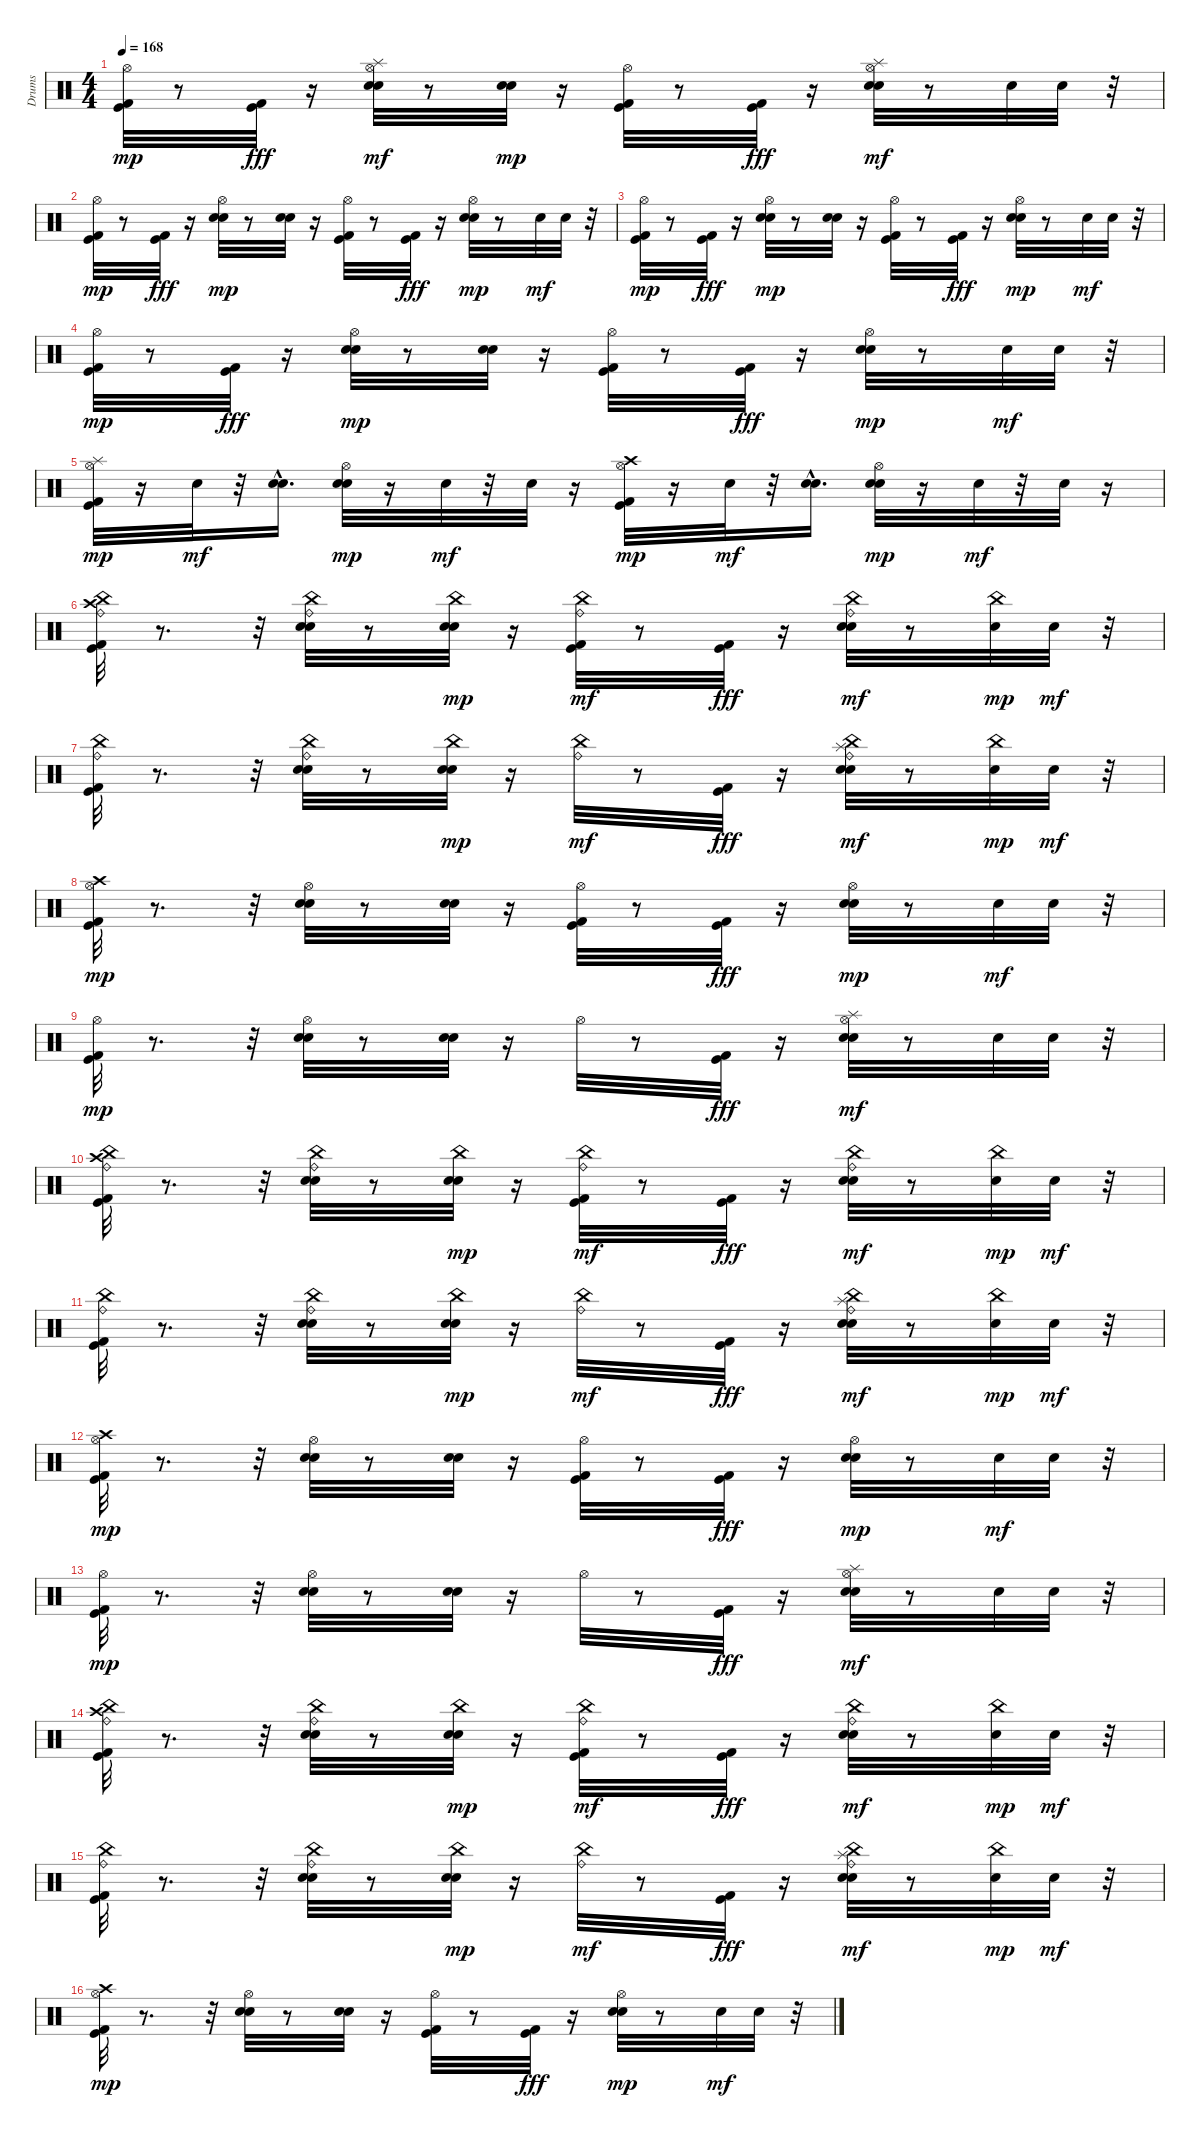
\track ("Drums" "Drums") {instrument percussion}
\staff {score}
\articulation defaults
\ts (4 4)
\tempo 168
\clef neutral
\ks c
("Kick (hit) 2" "Kick (hit)" "Hi-Hat (open)").32{dy mp} r.8 ("Kick (hit) 2" "Kick (hit)").32{dy fff} r.16 ("Snare (hit) 2" "Hand Clap (hit)" "Hi-Hat (open)" "Splash (hit)").32{dy mf} r.8 ("Snare (hit) 2" "Hand Clap (hit)").32{dy mp} r.16 ("Kick (hit) 2" "Kick (hit)" "Hi-Hat (open)").32 r.8 ("Kick (hit) 2" "Kick (hit)").32{dy fff} r.16 ("Snare (hit) 2" "Hand Clap (hit)" "Hi-Hat (open)" "Splash (hit)").32{dy mf} r.8 "Snare (hit) 2".32 "Hand Clap (hit)".32 r.32 |
("Kick (hit) 2" "Kick (hit)" "Hi-Hat (open)").32{dy mp} r.8 ("Kick (hit) 2" "Kick (hit)").32{dy fff} r.16 ("Snare (hit) 2" "Hand Clap (hit)" "Hi-Hat (open)").32{dy mp} r.8 ("Snare (hit) 2" "Hand Clap (hit)").32 r.16 ("Kick (hit) 2" "Kick (hit)" "Hi-Hat (open)").32 r.8 ("Kick (hit) 2" "Kick (hit)").32{dy fff} r.16 ("Snare (hit) 2" "Hand Clap (hit)" "Hi-Hat (open)").32{dy mp} r.8 "Snare (hit) 2".32{dy mf} "Hand Clap (hit)".32 r.32 |
("Kick (hit) 2" "Kick (hit)" "Hi-Hat (open)").32{dy mp} r.8 ("Kick (hit) 2" "Kick (hit)").32{dy fff} r.16 ("Snare (hit) 2" "Hand Clap (hit)" "Hi-Hat (open)").32{dy mp} r.8 ("Snare (hit) 2" "Hand Clap (hit)").32 r.16 ("Kick (hit) 2" "Kick (hit)" "Hi-Hat (open)").32 r.8 ("Kick (hit) 2" "Kick (hit)").32{dy fff} r.16 ("Snare (hit) 2" "Hand Clap (hit)" "Hi-Hat (open)").32{dy mp} r.8 "Snare (hit) 2".32{dy mf} "Hand Clap (hit)".32 r.32 |
("Kick (hit) 2" "Kick (hit)" "Hi-Hat (open)").32{dy mp} r.8 ("Kick (hit) 2" "Kick (hit)").32{dy fff} r.16 ("Snare (hit) 2" "Hand Clap (hit)" "Hi-Hat (open)").32{dy mp} r.8 ("Snare (hit) 2" "Hand Clap (hit)").32 r.16 ("Kick (hit) 2" "Kick (hit)" "Hi-Hat (open)").32 r.8 ("Kick (hit) 2" "Kick (hit)").32{dy fff} r.16 ("Snare (hit) 2" "Hand Clap (hit)" "Hi-Hat (open)").32{dy mp} r.8 "Snare (hit) 2".32{dy mf} "Hand Clap (hit)".32 r.32 |
("Kick (hit) 2" "Kick (hit)" "Splash (hit)" "Hi-Hat (open)").32{dy mp} r.16 "Snare (hit) 2".32{dy mf} r.32 ("Snare (hit) 2"{hac} "Snare (hit) 2").16{d} ("Snare (hit) 2" "Hand Clap (hit)" "Hi-Hat (open)").32{dy mp} r.16 "Snare (hit) 2".32{dy mf} r.32 "Snare (hit) 2".32 r.16 ("Kick (hit) 2" "Kick (hit)" "Crash high (hit)" "Hi-Hat (open)").32{dy mp} r.16 "Snare (hit) 2".32{dy mf} r.32 ("Snare (hit) 2"{hac} "Snare (hit) 2").16{d} ("Hand Clap (hit)" "Snare (hit) 2" "Hi-Hat (open)").32{dy mp} r.16 "Snare (hit) 2".32{dy mf} r.32 "Snare (hit) 2".32 r.16 |
("Kick (hit) 2" "Kick (hit)" "China (hit)" "Ride (bell)" "Crash high (hit)").32 r.8{d} r.32 ("Snare (hit) 2" "Hand Clap (hit)" "China (hit)" "Ride (bell)").32 r.8 ("Snare (hit) 2" "Hand Clap (hit)" "China (hit)").32{dy mp} r.16 ("Kick (hit) 2" "Kick (hit)" "China (hit)" "Ride (bell)").32{dy mf} r.8 ("Kick (hit) 2" "Kick (hit)").32{dy fff} r.16 ("Snare (hit) 2" "Hand Clap (hit)" "China (hit)" "Ride (bell)").32{dy mf} r.8 ("Snare (hit) 2" "China (hit)").32{dy mp} "Hand Clap (hit)".32{dy mf} r.32 |
("Kick (hit) 2" "Kick (hit)" "China (hit)" "Ride (bell)").32 r.8{d} r.32 ("Snare (hit) 2" "Hand Clap (hit)" "China (hit)" "Ride (bell)").32 r.8 ("Snare (hit) 2" "Hand Clap (hit)" "China (hit)").32{dy mp} r.16 ("China (hit)" "Ride (bell)").32{dy mf} r.8 ("Kick (hit) 2" "Kick (hit)").32{dy fff} r.16 ("Snare (hit) 2" "Hand Clap (hit)" "China (hit)" "Ride (bell)" "Splash (hit)").32{dy mf} r.8 ("Snare (hit) 2" "China (hit)").32{dy mp} "Hand Clap (hit)".32{dy mf} r.32 |
("Kick (hit) 2" "Kick (hit)" "Crash high (hit)" "Hi-Hat (open)").32{dy mp} r.8{d} r.32 ("Snare (hit) 2" "Hand Clap (hit)" "Hi-Hat (open)").32 r.8 ("Snare (hit) 2" "Hand Clap (hit)").32 r.16 ("Kick (hit) 2" "Kick (hit)" "Hi-Hat (open)").32 r.8 ("Kick (hit) 2" "Kick (hit)").32{dy fff} r.16 ("Snare (hit) 2" "Hand Clap (hit)" "Hi-Hat (open)").32{dy mp} r.8 "Snare (hit) 2".32{dy mf} "Hand Clap (hit)".32 r.32 |
("Kick (hit) 2" "Kick (hit)" "Hi-Hat (open)").32{dy mp} r.8{d} r.32 ("Snare (hit) 2" "Hand Clap (hit)" "Hi-Hat (open)").32 r.8 ("Snare (hit) 2" "Hand Clap (hit)").32 r.16 "Hi-Hat (open)".32 r.8 ("Kick (hit) 2" "Kick (hit)").32{dy fff} r.16 ("Snare (hit) 2" "Hand Clap (hit)" "Hi-Hat (open)" "Splash (hit)").32{dy mf} r.8 "Snare (hit) 2".32 "Hand Clap (hit)".32 r.32 |
("Kick (hit) 2" "Kick (hit)" "China (hit)" "Ride (bell)" "Crash high (hit)").32 r.8{d} r.32 ("Snare (hit) 2" "Hand Clap (hit)" "China (hit)" "Ride (bell)").32 r.8 ("Snare (hit) 2" "Hand Clap (hit)" "China (hit)").32{dy mp} r.16 ("Kick (hit) 2" "Kick (hit)" "China (hit)" "Ride (bell)").32{dy mf} r.8 ("Kick (hit) 2" "Kick (hit)").32{dy fff} r.16 ("Snare (hit) 2" "Hand Clap (hit)" "China (hit)" "Ride (bell)").32{dy mf} r.8 ("Snare (hit) 2" "China (hit)").32{dy mp} "Hand Clap (hit)".32{dy mf} r.32 |
("Kick (hit) 2" "Kick (hit)" "China (hit)" "Ride (bell)").32 r.8{d} r.32 ("Snare (hit) 2" "Hand Clap (hit)" "China (hit)" "Ride (bell)").32 r.8 ("Snare (hit) 2" "Hand Clap (hit)" "China (hit)").32{dy mp} r.16 ("China (hit)" "Ride (bell)").32{dy mf} r.8 ("Kick (hit) 2" "Kick (hit)").32{dy fff} r.16 ("Snare (hit) 2" "Hand Clap (hit)" "China (hit)" "Ride (bell)" "Splash (hit)").32{dy mf} r.8 ("Snare (hit) 2" "China (hit)").32{dy mp} "Hand Clap (hit)".32{dy mf} r.32 |
("Kick (hit) 2" "Kick (hit)" "Crash high (hit)" "Hi-Hat (open)").32{dy mp} r.8{d} r.32 ("Snare (hit) 2" "Hand Clap (hit)" "Hi-Hat (open)").32 r.8 ("Snare (hit) 2" "Hand Clap (hit)").32 r.16 ("Kick (hit) 2" "Kick (hit)" "Hi-Hat (open)").32 r.8 ("Kick (hit) 2" "Kick (hit)").32{dy fff} r.16 ("Snare (hit) 2" "Hand Clap (hit)" "Hi-Hat (open)").32{dy mp} r.8 "Snare (hit) 2".32{dy mf} "Hand Clap (hit)".32 r.32 |
("Kick (hit) 2" "Kick (hit)" "Hi-Hat (open)").32{dy mp} r.8{d} r.32 ("Snare (hit) 2" "Hand Clap (hit)" "Hi-Hat (open)").32 r.8 ("Snare (hit) 2" "Hand Clap (hit)").32 r.16 "Hi-Hat (open)".32 r.8 ("Kick (hit) 2" "Kick (hit)").32{dy fff} r.16 ("Snare (hit) 2" "Hand Clap (hit)" "Hi-Hat (open)" "Splash (hit)").32{dy mf} r.8 "Snare (hit) 2".32 "Hand Clap (hit)".32 r.32 |
("Kick (hit) 2" "Kick (hit)" "China (hit)" "Ride (bell)" "Crash high (hit)").32 r.8{d} r.32 ("Snare (hit) 2" "Hand Clap (hit)" "China (hit)" "Ride (bell)").32 r.8 ("Snare (hit) 2" "Hand Clap (hit)" "China (hit)").32{dy mp} r.16 ("Kick (hit) 2" "Kick (hit)" "China (hit)" "Ride (bell)").32{dy mf} r.8 ("Kick (hit) 2" "Kick (hit)").32{dy fff} r.16 ("Snare (hit) 2" "Hand Clap (hit)" "China (hit)" "Ride (bell)").32{dy mf} r.8 ("Snare (hit) 2" "China (hit)").32{dy mp} "Hand Clap (hit)".32{dy mf} r.32 |
("Kick (hit) 2" "Kick (hit)" "China (hit)" "Ride (bell)").32 r.8{d} r.32 ("Snare (hit) 2" "Hand Clap (hit)" "China (hit)" "Ride (bell)").32 r.8 ("Snare (hit) 2" "Hand Clap (hit)" "China (hit)").32{dy mp} r.16 ("China (hit)" "Ride (bell)").32{dy mf} r.8 ("Kick (hit) 2" "Kick (hit)").32{dy fff} r.16 ("Snare (hit) 2" "Hand Clap (hit)" "China (hit)" "Ride (bell)" "Splash (hit)").32{dy mf} r.8 ("Snare (hit) 2" "China (hit)").32{dy mp} "Hand Clap (hit)".32{dy mf} r.32 |
("Kick (hit) 2" "Kick (hit)" "Crash high (hit)" "Hi-Hat (open)").32{dy mp} r.8{d} r.32 ("Snare (hit) 2" "Hand Clap (hit)" "Hi-Hat (open)").32 r.8 ("Snare (hit) 2" "Hand Clap (hit)").32 r.16 ("Kick (hit) 2" "Kick (hit)" "Hi-Hat (open)").32 r.8 ("Kick (hit) 2" "Kick (hit)").32{dy fff} r.16 ("Snare (hit) 2" "Hand Clap (hit)" "Hi-Hat (open)").32{dy mp} r.8 "Snare (hit) 2".32{dy mf} "Hand Clap (hit)".32 r.32
